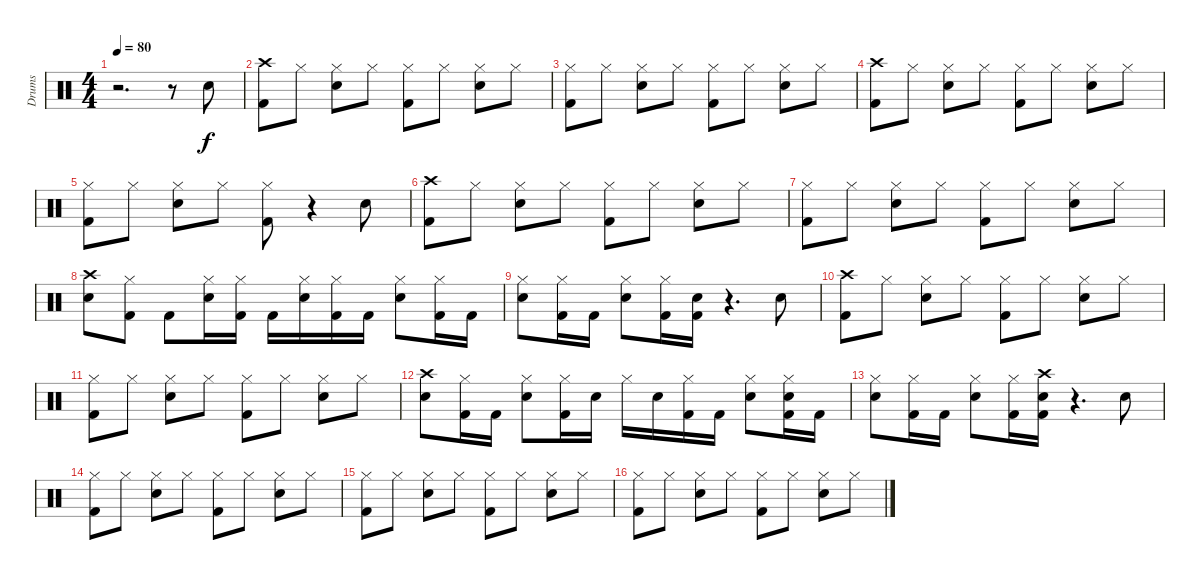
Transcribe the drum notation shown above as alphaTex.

\track ("Drums" "Drums") {instrument percussion}
\staff {score}
\articulation defaults
\ts (4 4)
\tempo 80
\clef neutral
\ks c
r.2{d dy f} r.8 "Snare (hit) 2".8 |
("Crash high (hit)" "Kick (hit) 2").8 "Hi-Hat (closed)".8 ("Hi-Hat (closed)" "Snare (hit) 2").8 "Hi-Hat (closed)".8 ("Hi-Hat (closed)" "Kick (hit) 2").8 "Hi-Hat (closed)".8 ("Hi-Hat (closed)" "Snare (hit) 2").8 "Hi-Hat (closed)".8 |
("Hi-Hat (closed)" "Kick (hit) 2").8 "Hi-Hat (closed)".8 ("Hi-Hat (closed)" "Snare (hit) 2").8 "Hi-Hat (closed)".8 ("Hi-Hat (closed)" "Kick (hit) 2").8 "Hi-Hat (closed)".8 ("Hi-Hat (closed)" "Snare (hit) 2").8 "Hi-Hat (closed)".8 |
("Crash high (hit)" "Kick (hit) 2").8 "Hi-Hat (closed)".8 ("Hi-Hat (closed)" "Snare (hit) 2").8 "Hi-Hat (closed)".8 ("Hi-Hat (closed)" "Kick (hit) 2").8 "Hi-Hat (closed)".8 ("Hi-Hat (closed)" "Snare (hit) 2").8 "Hi-Hat (closed)".8 |
("Hi-Hat (closed)" "Kick (hit) 2").8 "Hi-Hat (closed)".8 ("Hi-Hat (closed)" "Snare (hit) 2").8 "Hi-Hat (closed)".8 ("Hi-Hat (closed)" "Kick (hit) 2").8 r.4 "Snare (hit) 2".8 |
("Crash high (hit)" "Kick (hit) 2").8 "Hi-Hat (closed)".8 ("Hi-Hat (closed)" "Snare (hit) 2").8 "Hi-Hat (closed)".8 ("Hi-Hat (closed)" "Kick (hit) 2").8 "Hi-Hat (closed)".8 ("Hi-Hat (closed)" "Snare (hit) 2").8 "Hi-Hat (closed)".8 |
("Hi-Hat (closed)" "Kick (hit) 2").8 "Hi-Hat (closed)".8 ("Hi-Hat (closed)" "Snare (hit) 2").8 "Hi-Hat (closed)".8 ("Hi-Hat (closed)" "Kick (hit) 2").8 "Hi-Hat (closed)".8 ("Hi-Hat (closed)" "Snare (hit) 2").8 "Hi-Hat (closed)".8 |
("Snare (hit) 2" "Crash high (hit)").8 ("Kick (hit) 2" "Hi-Hat (closed)").8 "Kick (hit) 2".8 ("Hi-Hat (closed)" "Snare (hit) 2").16 ("Kick (hit) 2" "Hi-Hat (closed)").16 "Kick (hit) 2".16 ("Snare (hit) 2" "Hi-Hat (closed)").16 ("Kick (hit) 2" "Hi-Hat (closed)").16 "Kick (hit) 2".16 ("Hi-Hat (closed)" "Snare (hit) 2").8 ("Kick (hit) 2" "Hi-Hat (closed)").16 "Kick (hit) 2".16 |
("Hi-Hat (closed)" "Snare (hit) 2").8 ("Kick (hit) 2" "Hi-Hat (closed)").16 "Kick (hit) 2".16 ("Hi-Hat (closed)" "Snare (hit) 2").8 ("Kick (hit) 2" "Hi-Hat (closed)").16 ("Snare (hit) 2" "Kick (hit) 2").16 r.4{d} "Snare (hit) 2".8 |
("Crash high (hit)" "Kick (hit) 2").8 "Hi-Hat (closed)".8 ("Hi-Hat (closed)" "Snare (hit) 2").8 "Hi-Hat (closed)".8 ("Hi-Hat (closed)" "Kick (hit) 2").8 "Hi-Hat (closed)".8 ("Hi-Hat (closed)" "Snare (hit) 2").8 "Hi-Hat (closed)".8 |
("Hi-Hat (closed)" "Kick (hit) 2").8 "Hi-Hat (closed)".8 ("Hi-Hat (closed)" "Snare (hit) 2").8 "Hi-Hat (closed)".8 ("Hi-Hat (closed)" "Kick (hit) 2").8 "Hi-Hat (closed)".8 ("Hi-Hat (closed)" "Snare (hit) 2").8 "Hi-Hat (closed)".8 |
("Snare (hit) 2" "Crash high (hit)").8 ("Kick (hit) 2" "Hi-Hat (closed)").16 "Kick (hit) 2".16 ("Hi-Hat (closed)" "Snare (hit) 2").8 ("Kick (hit) 2" "Hi-Hat (closed)").16 "Snare (hit) 2".16 "Hi-Hat (closed)".16 "Snare (hit) 2".16 ("Kick (hit) 2" "Hi-Hat (closed)").16 "Kick (hit) 2".16 ("Hi-Hat (closed)" "Snare (hit) 2").8 ("Snare (hit) 2" "Kick (hit) 2" "Hi-Hat (closed)").16 "Kick (hit) 2".16 |
("Hi-Hat (closed)" "Snare (hit) 2").8 ("Kick (hit) 2" "Hi-Hat (closed)").16 "Kick (hit) 2".16 ("Hi-Hat (closed)" "Snare (hit) 2").8 ("Kick (hit) 2" "Hi-Hat (closed)").16 ("Crash high (hit)" "Snare (hit) 2" "Kick (hit) 2").16 r.4{d} "Snare (hit) 2".8 |
("Hi-Hat (closed)" "Kick (hit) 2").8 "Hi-Hat (closed)".8 ("Hi-Hat (closed)" "Snare (hit) 2").8 "Hi-Hat (closed)".8 ("Hi-Hat (closed)" "Kick (hit) 2").8 "Hi-Hat (closed)".8 ("Hi-Hat (closed)" "Snare (hit) 2").8 "Hi-Hat (closed)".8 |
("Hi-Hat (closed)" "Kick (hit) 2").8 "Hi-Hat (closed)".8 ("Hi-Hat (closed)" "Snare (hit) 2").8 "Hi-Hat (closed)".8 ("Hi-Hat (closed)" "Kick (hit) 2").8 "Hi-Hat (closed)".8 ("Hi-Hat (closed)" "Snare (hit) 2").8 "Hi-Hat (closed)".8 |
("Hi-Hat (closed)" "Kick (hit) 2").8 "Hi-Hat (closed)".8 ("Hi-Hat (closed)" "Snare (hit) 2").8 "Hi-Hat (closed)".8 ("Hi-Hat (closed)" "Kick (hit) 2").8 "Hi-Hat (closed)".8 ("Hi-Hat (closed)" "Snare (hit) 2").8 "Hi-Hat (closed)".8
